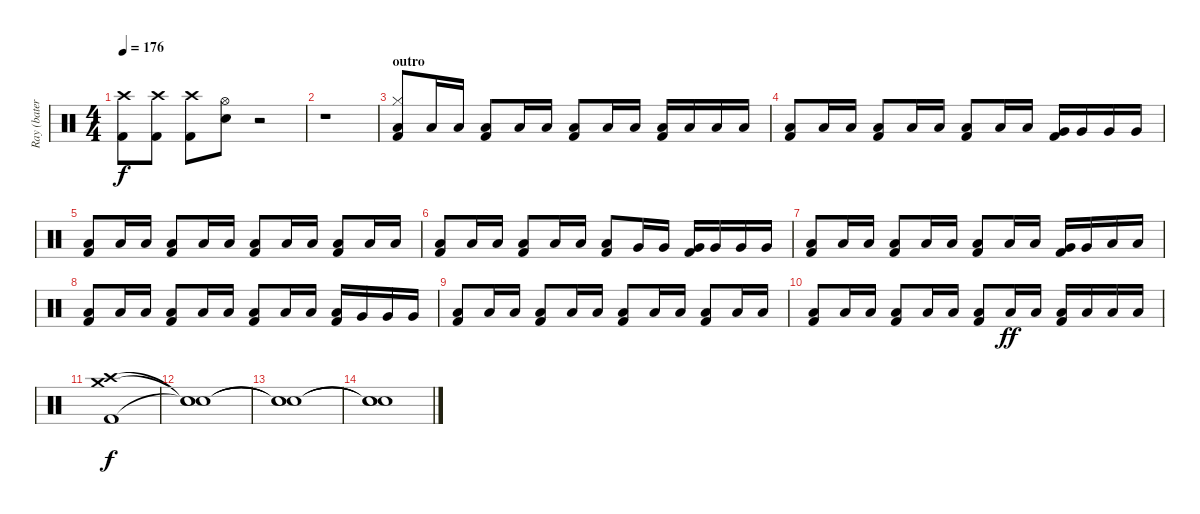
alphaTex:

\track ("Ray (batería)" "Ray (bater") {instrument percussion}
\staff {score}
\articulation defaults
\ts (4 4)
\tempo 176
\clef neutral
\ks c
("Crash high (hit)" "Kick (hit) 2").8{dy f} ("Crash high (hit)" "Kick (hit) 2").8 ("Crash high (hit)" "Kick (hit) 2").8 ("Hi-Hat (open)" "Snare (hit) 2").8 r.2 |
r.1 |
\section ("" "outro")
("Hi-Hat (closed)" "Low Floor Tom (hit)" "Kick (hit) 2").8{volume 12} "Low Floor Tom (hit)".16 "Low Floor Tom (hit)".16 ("Low Floor Tom (hit)" "Kick (hit) 2").8 "Low Floor Tom (hit)".16 "Low Floor Tom (hit)".16 ("Low Floor Tom (hit)" "Kick (hit) 2").8 "Low Floor Tom (hit)".16 "Low Floor Tom (hit)".16 ("Low Floor Tom (hit)" "Kick (hit) 2").16 "Low Floor Tom (hit)".16 "Low Floor Tom (hit)".16 "Low Floor Tom (hit)".16 |
("Low Floor Tom (hit)" "Kick (hit) 2").8 "Low Floor Tom (hit)".16 "Low Floor Tom (hit)".16 ("Low Floor Tom (hit)" "Kick (hit) 2").8 "Low Floor Tom (hit)".16 "Low Floor Tom (hit)".16 ("Low Floor Tom (hit)" "Kick (hit) 2").8 "Low Tom (hit)".16 "Low Tom (hit)".16 ("Very Low Tom (hit)" "Kick (hit) 2").16 "Very Low Tom (hit)".16 "Very Low Tom (hit)".16 "Very Low Tom (hit)".16 |
("Low Floor Tom (hit)" "Kick (hit) 2").8 "Low Floor Tom (hit)".16 "Low Floor Tom (hit)".16 ("Low Floor Tom (hit)" "Kick (hit) 2").8 "Low Floor Tom (hit)".16 "Low Floor Tom (hit)".16 ("Low Floor Tom (hit)" "Kick (hit) 2").8 "Low Floor Tom (hit)".16 "Low Floor Tom (hit)".16 ("Low Floor Tom (hit)" "Kick (hit) 2").8 "Low Floor Tom (hit)".16 "Low Floor Tom (hit)".16 |
("Low Floor Tom (hit)" "Kick (hit) 2").8 "Low Floor Tom (hit)".16 "Low Floor Tom (hit)".16 ("Low Floor Tom (hit)" "Kick (hit) 2").8 "Low Floor Tom (hit)".16 "Low Floor Tom (hit)".16 ("Low Floor Tom (hit)" "Kick (hit) 2").8 "Very Low Tom (hit)".16 "Very Low Tom (hit)".16 ("Very Low Tom (hit)" "Kick (hit) 2").16 "Very Low Tom (hit)".16 "Very Low Tom (hit)".16 "Very Low Tom (hit)".16 |
("Low Floor Tom (hit)" "Kick (hit) 2").8 "Low Floor Tom (hit)".16 "Low Floor Tom (hit)".16 ("Low Floor Tom (hit)" "Kick (hit) 2").8 "Low Floor Tom (hit)".16 "Low Floor Tom (hit)".16 ("Low Floor Tom (hit)" "Kick (hit) 2").8 "Low Floor Tom (hit)".16 "Low Floor Tom (hit)".16 ("Very Low Tom (hit)" "Kick (hit) 2").16 "Very Low Tom (hit)".16 "Low Floor Tom (hit)".16 "Low Floor Tom (hit)".16 |
("Low Floor Tom (hit)" "Kick (hit) 2").8 "Low Floor Tom (hit)".16 "Low Floor Tom (hit)".16 ("Low Floor Tom (hit)" "Kick (hit) 2").8 "Low Floor Tom (hit)".16 "Low Floor Tom (hit)".16 ("Low Floor Tom (hit)" "Kick (hit) 2").8 "Low Tom (hit)".16 "Low Tom (hit)".16 ("Low Tom (hit)" "Kick (hit) 2").16 "Very Low Tom (hit)".16 "Very Low Tom (hit)".16 "Very Low Tom (hit)".16 |
("Low Floor Tom (hit)" "Kick (hit) 2").8 "Low Floor Tom (hit)".16 "Low Floor Tom (hit)".16 ("Low Floor Tom (hit)" "Kick (hit) 2").8 "Low Floor Tom (hit)".16 "Low Floor Tom (hit)".16 ("Low Floor Tom (hit)" "Kick (hit) 2").8 "Low Floor Tom (hit)".16 "Low Floor Tom (hit)".16 ("Low Floor Tom (hit)" "Kick (hit) 2").8 "Low Floor Tom (hit)".16 "Low Floor Tom (hit)".16 |
("Low Floor Tom (hit)" "Kick (hit) 2").8 "Low Floor Tom (hit)".16 "Low Floor Tom (hit)".16 ("Low Floor Tom (hit)" "Kick (hit) 2").8 "Low Floor Tom (hit)".16 "Low Floor Tom (hit)".16 ("Low Floor Tom (hit)" "Kick (hit) 2").8 "Low Floor Tom (hit)".16{dy ff} "Low Floor Tom (hit)".16 ("Low Floor Tom (hit)" "Kick (hit) 2").16 "Low Floor Tom (hit)".16 "Low Floor Tom (hit)".16 "Low Floor Tom (hit)".16 |
("Crash high (hit)" "Crash medium (hit)" "Kick (hit) 2").1{dy f volume 14} |
("Snare (hit)"{t} "Snare (hit)"{t} "Snare (hit)"{t}).1 |
("Snare (hit)"{t} "Snare (hit)"{t} "Snare (hit)"{t}).1 |
("Snare (hit)"{t} "Snare (hit)"{t} "Snare (hit)"{t}).1
